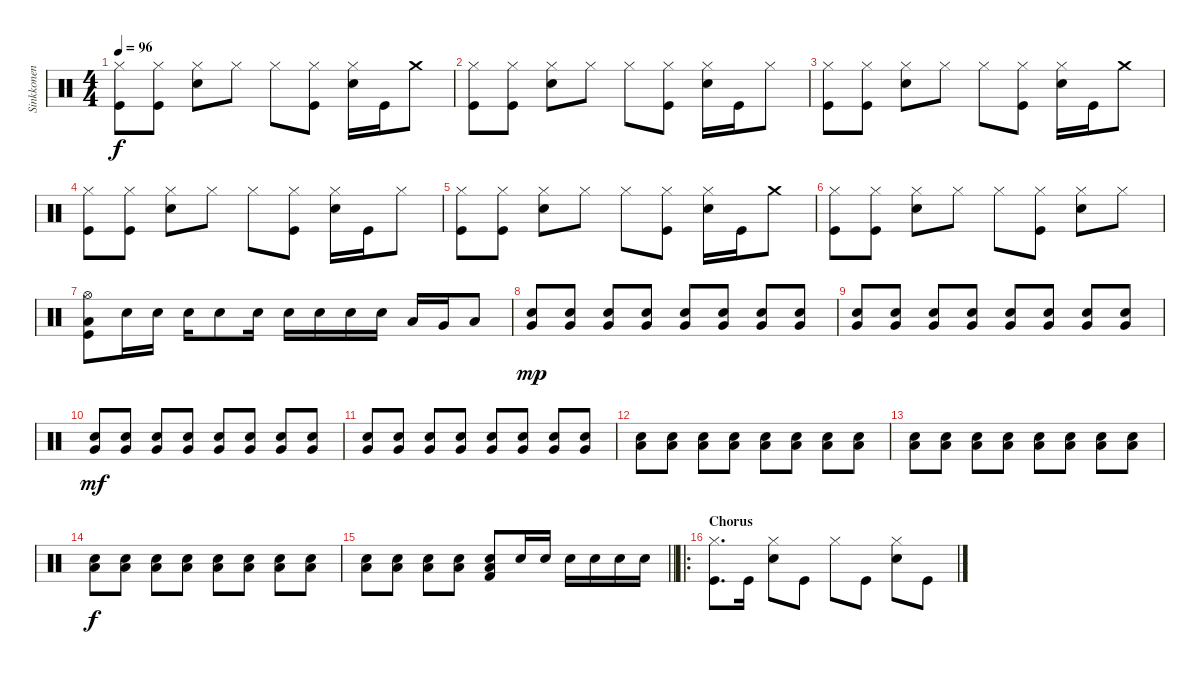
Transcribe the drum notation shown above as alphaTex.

\track ("Sinkkonen" "Sinkkonen") {instrument percussion}
\staff {score}
\articulation defaults
\ts (4 4)
\tempo 96
\clef neutral
\ks c
("Kick (hit)" "Hi-Hat (closed)").8{dy f} ("Kick (hit)" "Hi-Hat (closed)").8 ("Electric Snare (hit)" "Hi-Hat (closed)").8 "Hi-Hat (closed)".8 "Hi-Hat (closed)".8 ("Kick (hit)" "Hi-Hat (closed)").8 ("Electric Snare (hit)" "Hi-Hat (closed)").16 "Kick (hit)".16 "Crash medium (hit)".8 |
("Kick (hit)" "Hi-Hat (closed)").8 ("Kick (hit)" "Hi-Hat (closed)").8 ("Electric Snare (hit)" "Hi-Hat (closed)").8 "Hi-Hat (closed)".8 "Hi-Hat (closed)".8 ("Kick (hit)" "Hi-Hat (closed)").8 ("Electric Snare (hit)" "Hi-Hat (closed)").16 "Kick (hit)".16 "Hi-Hat (closed)".8 |
("Kick (hit)" "Hi-Hat (closed)").8 ("Kick (hit)" "Hi-Hat (closed)").8 ("Electric Snare (hit)" "Hi-Hat (closed)").8 "Hi-Hat (closed)".8 "Hi-Hat (closed)".8 ("Kick (hit)" "Hi-Hat (closed)").8 ("Electric Snare (hit)" "Hi-Hat (closed)").16 "Kick (hit)".16 "Crash medium (hit)".8 |
("Kick (hit)" "Hi-Hat (closed)").8 ("Kick (hit)" "Hi-Hat (closed)").8 ("Electric Snare (hit)" "Hi-Hat (closed)").8 "Hi-Hat (closed)".8 "Hi-Hat (closed)".8 ("Kick (hit)" "Hi-Hat (closed)").8 ("Electric Snare (hit)" "Hi-Hat (closed)").16 "Kick (hit)".16 "Hi-Hat (closed)".8 |
("Kick (hit)" "Hi-Hat (closed)").8 ("Kick (hit)" "Hi-Hat (closed)").8 ("Electric Snare (hit)" "Hi-Hat (closed)").8 "Hi-Hat (closed)".8 "Hi-Hat (closed)".8 ("Kick (hit)" "Hi-Hat (closed)").8 ("Electric Snare (hit)" "Hi-Hat (closed)").16 "Kick (hit)".16 "Crash medium (hit)".8 |
("Kick (hit)" "Hi-Hat (closed)").8 ("Kick (hit)" "Hi-Hat (closed)").8 ("Electric Snare (hit)" "Hi-Hat (closed)").8 "Hi-Hat (closed)".8 "Hi-Hat (closed)".8 ("Kick (hit)" "Hi-Hat (closed)").8 ("Electric Snare (hit)" "Hi-Hat (closed)").8 "Hi-Hat (closed)".8 |
("Kick (hit)" "Low Floor Tom (hit)" "Hi-Hat (open)").8 "Electric Snare (hit)".16 "Electric Snare (hit)".16 "Electric Snare (hit)".16 "Electric Snare (hit)".8 "Electric Snare (hit)".16 "Electric Snare (hit)".16 "Electric Snare (hit)".16 "Electric Snare (hit)".16 "Electric Snare (hit)".16 "Low Tom (hit)".16 "Very Low Tom (hit)".16 "Low Floor Tom (hit)".8 |
("Electric Snare (hit)" "Very Low Tom (hit)").8{dy mp} ("Electric Snare (hit)" "Very Low Tom (hit)").8 ("Electric Snare (hit)" "Very Low Tom (hit)").8 ("Electric Snare (hit)" "Very Low Tom (hit)").8 ("Electric Snare (hit)" "Very Low Tom (hit)").8 ("Electric Snare (hit)" "Very Low Tom (hit)").8 ("Electric Snare (hit)" "Very Low Tom (hit)").8 ("Electric Snare (hit)" "Very Low Tom (hit)").8 |
("Electric Snare (hit)" "Very Low Tom (hit)").8 ("Electric Snare (hit)" "Very Low Tom (hit)").8 ("Electric Snare (hit)" "Very Low Tom (hit)").8 ("Electric Snare (hit)" "Very Low Tom (hit)").8 ("Electric Snare (hit)" "Very Low Tom (hit)").8 ("Electric Snare (hit)" "Very Low Tom (hit)").8 ("Electric Snare (hit)" "Very Low Tom (hit)").8 ("Electric Snare (hit)" "Very Low Tom (hit)").8 |
("Electric Snare (hit)" "Very Low Tom (hit)").8{dy mf} ("Electric Snare (hit)" "Very Low Tom (hit)").8 ("Electric Snare (hit)" "Very Low Tom (hit)").8 ("Electric Snare (hit)" "Very Low Tom (hit)").8 ("Electric Snare (hit)" "Very Low Tom (hit)").8 ("Electric Snare (hit)" "Very Low Tom (hit)").8 ("Electric Snare (hit)" "Very Low Tom (hit)").8 ("Electric Snare (hit)" "Very Low Tom (hit)").8 |
("Electric Snare (hit)" "Very Low Tom (hit)").8 ("Electric Snare (hit)" "Very Low Tom (hit)").8 ("Electric Snare (hit)" "Very Low Tom (hit)").8 ("Electric Snare (hit)" "Very Low Tom (hit)").8 ("Electric Snare (hit)" "Very Low Tom (hit)").8 ("Electric Snare (hit)" "Very Low Tom (hit)").8 ("Electric Snare (hit)" "Very Low Tom (hit)").8 ("Electric Snare (hit)" "Very Low Tom (hit)").8 |
("Electric Snare (hit)" "Low Floor Tom (hit)").8 ("Electric Snare (hit)" "Low Floor Tom (hit)").8 ("Electric Snare (hit)" "Low Floor Tom (hit)").8 ("Electric Snare (hit)" "Low Floor Tom (hit)").8 ("Electric Snare (hit)" "Low Floor Tom (hit)").8 ("Electric Snare (hit)" "Low Floor Tom (hit)").8 ("Electric Snare (hit)" "Low Floor Tom (hit)").8 ("Electric Snare (hit)" "Low Floor Tom (hit)").8 |
("Electric Snare (hit)" "Low Floor Tom (hit)").8 ("Electric Snare (hit)" "Low Floor Tom (hit)").8 ("Electric Snare (hit)" "Low Floor Tom (hit)").8 ("Electric Snare (hit)" "Low Floor Tom (hit)").8 ("Electric Snare (hit)" "Low Floor Tom (hit)").8 ("Electric Snare (hit)" "Low Floor Tom (hit)").8 ("Electric Snare (hit)" "Low Floor Tom (hit)").8 ("Electric Snare (hit)" "Low Floor Tom (hit)").8 |
("Electric Snare (hit)" "Low Floor Tom (hit)").8{dy f} ("Electric Snare (hit)" "Low Floor Tom (hit)").8 ("Electric Snare (hit)" "Low Floor Tom (hit)").8 ("Electric Snare (hit)" "Low Floor Tom (hit)").8 ("Electric Snare (hit)" "Low Floor Tom (hit)").8 ("Electric Snare (hit)" "Low Floor Tom (hit)").8 ("Electric Snare (hit)" "Low Floor Tom (hit)").8 ("Electric Snare (hit)" "Low Floor Tom (hit)").8 |
\barLineRight lightlight
("Electric Snare (hit)" "Low Floor Tom (hit)").8 ("Electric Snare (hit)" "Low Floor Tom (hit)").8 ("Electric Snare (hit)" "Low Floor Tom (hit)").8 ("Electric Snare (hit)" "Low Floor Tom (hit)").8 ("Kick (hit) 2" "Electric Snare (hit)" "Low Floor Tom (hit)").8 "Electric Snare (hit)".16 "Electric Snare (hit)".16 "Electric Snare (hit)".16 "Electric Snare (hit)".16 "Electric Snare (hit)".16 "Electric Snare (hit)".16 |
\ro
\section ("" "Chorus")
("Kick (hit)" "Hi-Hat (closed)").8{d} "Kick (hit)".16 ("Electric Snare (hit)" "Hi-Hat (closed)").8 "Kick (hit)".8 "Hi-Hat (closed)".8 "Kick (hit)".8 ("Electric Snare (hit)" "Hi-Hat (closed)").8 "Kick (hit)".8
